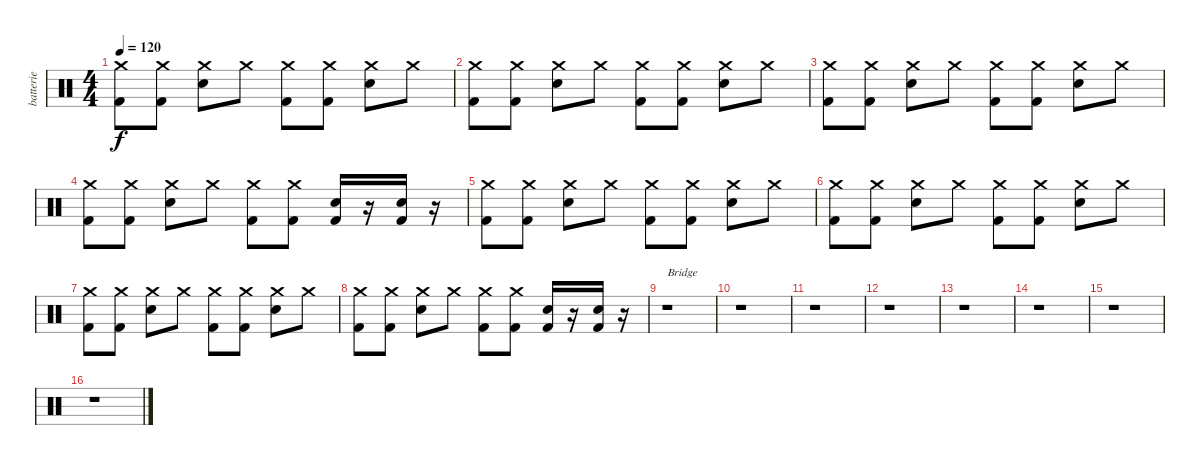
\track ("batterie" "batterie") {instrument percussion}
\staff {score}
\articulation defaults
\ts (4 4)
\tempo 120
\clef neutral
\ks c
("Crash medium (hit)" "Kick (hit) 2").8{dy f} ("Crash medium (hit)" "Kick (hit) 2").8 ("Crash medium (hit)" "Electric Snare (hit)").8 "Crash medium (hit)".8 ("Crash medium (hit)" "Kick (hit) 2").8 ("Crash medium (hit)" "Kick (hit) 2").8 ("Crash medium (hit)" "Electric Snare (hit)").8 "Crash medium (hit)".8 |
("Crash medium (hit)" "Kick (hit) 2").8 ("Crash medium (hit)" "Kick (hit) 2").8 ("Crash medium (hit)" "Electric Snare (hit)").8 "Crash medium (hit)".8 ("Crash medium (hit)" "Kick (hit) 2").8 ("Crash medium (hit)" "Kick (hit) 2").8 ("Crash medium (hit)" "Electric Snare (hit)").8 "Crash medium (hit)".8 |
("Crash medium (hit)" "Kick (hit) 2").8 ("Crash medium (hit)" "Kick (hit) 2").8 ("Crash medium (hit)" "Electric Snare (hit)").8 "Crash medium (hit)".8 ("Crash medium (hit)" "Kick (hit) 2").8 ("Crash medium (hit)" "Kick (hit) 2").8 ("Crash medium (hit)" "Electric Snare (hit)").8 "Crash medium (hit)".8 |
("Crash medium (hit)" "Kick (hit) 2").8 ("Crash medium (hit)" "Kick (hit) 2").8 ("Crash medium (hit)" "Electric Snare (hit)").8 "Crash medium (hit)".8 ("Crash medium (hit)" "Kick (hit) 2").8 ("Crash medium (hit)" "Kick (hit) 2").8 ("Kick (hit) 2" "Electric Snare (hit)").16 r.16 ("Kick (hit) 2" "Electric Snare (hit)").16 r.16 |
("Crash medium (hit)" "Kick (hit) 2").8 ("Crash medium (hit)" "Kick (hit) 2").8 ("Crash medium (hit)" "Electric Snare (hit)").8 "Crash medium (hit)".8 ("Crash medium (hit)" "Kick (hit) 2").8 ("Crash medium (hit)" "Kick (hit) 2").8 ("Crash medium (hit)" "Electric Snare (hit)").8 "Crash medium (hit)".8 |
("Crash medium (hit)" "Kick (hit) 2").8 ("Crash medium (hit)" "Kick (hit) 2").8 ("Crash medium (hit)" "Electric Snare (hit)").8 "Crash medium (hit)".8 ("Crash medium (hit)" "Kick (hit) 2").8 ("Crash medium (hit)" "Kick (hit) 2").8 ("Crash medium (hit)" "Electric Snare (hit)").8 "Crash medium (hit)".8 |
("Crash medium (hit)" "Kick (hit) 2").8 ("Crash medium (hit)" "Kick (hit) 2").8 ("Crash medium (hit)" "Electric Snare (hit)").8 "Crash medium (hit)".8 ("Crash medium (hit)" "Kick (hit) 2").8 ("Crash medium (hit)" "Kick (hit) 2").8 ("Crash medium (hit)" "Electric Snare (hit)").8 "Crash medium (hit)".8 |
("Crash medium (hit)" "Kick (hit) 2").8 ("Crash medium (hit)" "Kick (hit) 2").8 ("Crash medium (hit)" "Electric Snare (hit)").8 "Crash medium (hit)".8 ("Crash medium (hit)" "Kick (hit) 2").8 ("Crash medium (hit)" "Kick (hit) 2").8 ("Kick (hit) 2" "Electric Snare (hit)").16 r.16 ("Kick (hit) 2" "Electric Snare (hit)").16 r.16 |
r.1{txt "Bridge"} |
r.1 |
r.1 |
r.1 |
r.1 |
r.1 |
r.1 |
r.1
